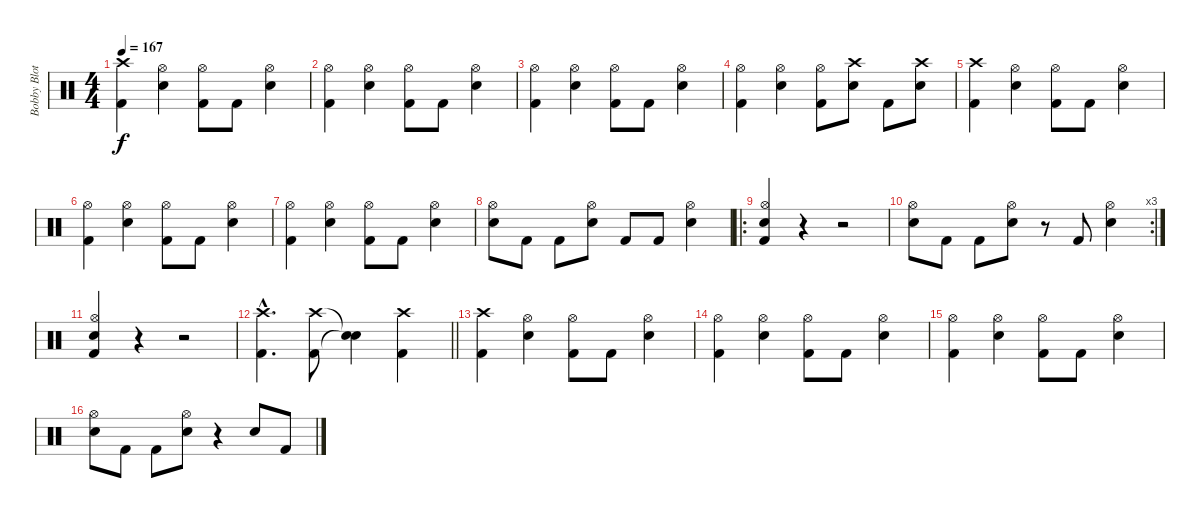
\track ("Bobby Blotzer" "Bobby Blot") {instrument percussion}
\staff {score}
\articulation defaults
\ts (4 4)
\tempo 167
\clef neutral
\ks c
("Crash high (hit)" "Kick (hit) 2").4{dy f} ("Hi-Hat (open)" "Electric Snare (hit)").4 ("Hi-Hat (open)" "Kick (hit) 2").8 "Kick (hit) 2".8 ("Hi-Hat (open)" "Electric Snare (hit)").4 |
("Hi-Hat (open)" "Kick (hit) 2").4 ("Hi-Hat (open)" "Electric Snare (hit)").4 ("Hi-Hat (open)" "Kick (hit) 2").8 "Kick (hit) 2".8 ("Hi-Hat (open)" "Electric Snare (hit)").4 |
("Hi-Hat (open)" "Kick (hit) 2").4 ("Hi-Hat (open)" "Electric Snare (hit)").4 ("Hi-Hat (open)" "Kick (hit) 2").8 "Kick (hit) 2".8 ("Hi-Hat (open)" "Electric Snare (hit)").4 |
("Hi-Hat (open)" "Kick (hit) 2").4 ("Hi-Hat (open)" "Electric Snare (hit)").4 ("Hi-Hat (open)" "Kick (hit) 2").8 ("Crash high (hit)" "Electric Snare (hit)").8 "Kick (hit) 2".8 ("Crash high (hit)" "Electric Snare (hit)").8 |
("Crash high (hit)" "Kick (hit) 2").4 ("Hi-Hat (open)" "Electric Snare (hit)").4 ("Hi-Hat (open)" "Kick (hit) 2").8 "Kick (hit) 2".8 ("Hi-Hat (open)" "Electric Snare (hit)").4 |
("Hi-Hat (open)" "Kick (hit) 2").4 ("Hi-Hat (open)" "Electric Snare (hit)").4 ("Hi-Hat (open)" "Kick (hit) 2").8 "Kick (hit) 2".8 ("Hi-Hat (open)" "Electric Snare (hit)").4 |
("Hi-Hat (open)" "Kick (hit) 2").4 ("Hi-Hat (open)" "Electric Snare (hit)").4 ("Hi-Hat (open)" "Kick (hit) 2").8 "Kick (hit) 2".8 ("Hi-Hat (open)" "Electric Snare (hit)").4 |
("Hi-Hat (open)" "Electric Snare (hit)").8 "Kick (hit) 2".8 "Kick (hit) 2".8 ("Hi-Hat (open)" "Electric Snare (hit)").8 "Kick (hit) 2".8 "Kick (hit) 2".8 ("Hi-Hat (open)" "Electric Snare (hit)").4 |
\ro
("Hi-Hat (open)" "Electric Snare (hit)" "Kick (hit) 2").4 r.4 r.2 |
\rc 3
("Hi-Hat (open)" "Electric Snare (hit)").8 "Kick (hit) 2".8 "Kick (hit) 2".8 ("Hi-Hat (open)" "Electric Snare (hit)").8 r.8 "Kick (hit) 2".8 ("Hi-Hat (open)" "Electric Snare (hit)").4 |
("Hi-Hat (open)" "Electric Snare (hit)" "Kick (hit) 2").4 r.4 r.2 |
\barLineRight lightlight
("Crash high (hit)"{hac} "Kick (hit) 2"{hac}).4{d} ("Crash high (hit)" "Kick (hit) 2").8 ("Snare (hit)"{t} "Snare (hit)"{t}).4 ("Crash high (hit)" "Kick (hit) 2").4 |
("Crash high (hit)" "Kick (hit) 2").4 ("Hi-Hat (open)" "Electric Snare (hit)").4 ("Hi-Hat (open)" "Kick (hit) 2").8 "Kick (hit) 2".8 ("Hi-Hat (open)" "Electric Snare (hit)").4 |
("Hi-Hat (open)" "Kick (hit) 2").4 ("Hi-Hat (open)" "Electric Snare (hit)").4 ("Hi-Hat (open)" "Kick (hit) 2").8 "Kick (hit) 2".8 ("Hi-Hat (open)" "Electric Snare (hit)").4 |
("Hi-Hat (open)" "Kick (hit) 2").4 ("Hi-Hat (open)" "Electric Snare (hit)").4 ("Hi-Hat (open)" "Kick (hit) 2").8 "Kick (hit) 2".8 ("Hi-Hat (open)" "Electric Snare (hit)").4 |
("Hi-Hat (open)" "Electric Snare (hit)").8 "Kick (hit) 2".8 "Kick (hit) 2".8 ("Hi-Hat (open)" "Electric Snare (hit)").8 r.4 "Electric Snare (hit)".8 "Kick (hit) 2".8
